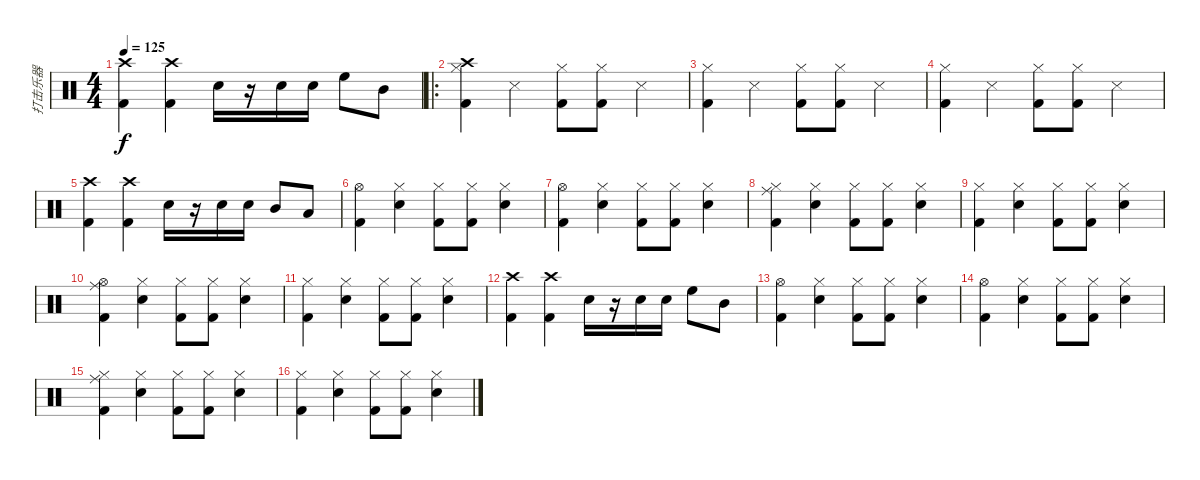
\track ("打击乐器" "打击乐器") {instrument percussion}
\staff {score}
\articulation defaults
\ts (4 4)
\tempo 125
\clef neutral
\ks c
("Kick (hit) 2" "Crash high (hit)").4{dy f} ("Crash high (hit)" "Kick (hit) 2").4 "Snare (hit) 2".16 r.16 "Snare (hit) 2".16 "Snare (hit) 2".16 "High Floor Tom (hit)".8 "Mid Tom (hit)".8 |
\ro
("Hi-Hat (closed)" "Crash high (hit)" "Kick (hit) 2").4 "Snare (side stick) 3".4 ("Hi-Hat (closed)" "Kick (hit) 2").8 ("Hi-Hat (closed)" "Kick (hit) 2").8 "Snare (side stick) 3".4 |
("Hi-Hat (closed)" "Kick (hit) 2").4 "Snare (side stick) 3".4 ("Hi-Hat (closed)" "Kick (hit) 2").8 ("Hi-Hat (closed)" "Kick (hit) 2").8 "Snare (side stick) 3".4 |
("Hi-Hat (closed)" "Kick (hit) 2").4 "Snare (side stick) 3".4 ("Hi-Hat (closed)" "Kick (hit) 2").8 ("Hi-Hat (closed)" "Kick (hit) 2").8 "Snare (side stick) 3".4 |
("Kick (hit) 2" "Crash high (hit)").4 ("Crash high (hit)" "Kick (hit) 2").4 "Snare (hit) 2".16 r.16 "Snare (hit) 2".16 "Snare (hit) 2".16 "Mid Tom (hit)".8 "Low Tom (hit)".8 |
("Hi-Hat (open)" "Kick (hit) 2").4 ("Hi-Hat (closed)" "Snare (hit) 2").4 ("Hi-Hat (closed)" "Kick (hit) 2").8 ("Hi-Hat (closed)" "Kick (hit) 2").8 ("Hi-Hat (closed)" "Snare (hit) 2").4 |
("Hi-Hat (open)" "Kick (hit) 2").4 ("Hi-Hat (closed)" "Snare (hit) 2").4 ("Hi-Hat (closed)" "Kick (hit) 2").8 ("Hi-Hat (closed)" "Kick (hit) 2").8 ("Hi-Hat (closed)" "Snare (hit) 2").4 |
("Ride (middle)" "Hi-Hat (closed)" "Kick (hit) 2").4 ("Hi-Hat (closed)" "Snare (hit) 2").4 ("Hi-Hat (closed)" "Kick (hit) 2").8 ("Hi-Hat (closed)" "Kick (hit) 2").8 ("Hi-Hat (closed)" "Snare (hit) 2").4 |
("Hi-Hat (closed)" "Kick (hit) 2").4 ("Hi-Hat (closed)" "Snare (hit) 2").4 ("Hi-Hat (closed)" "Kick (hit) 2").8 ("Hi-Hat (closed)" "Kick (hit) 2").8 ("Hi-Hat (closed)" "Snare (hit) 2").4 |
("Ride (middle)" "Hi-Hat (open)" "Kick (hit) 2").4 ("Hi-Hat (closed)" "Snare (hit) 2").4 ("Hi-Hat (closed)" "Kick (hit) 2").8 ("Hi-Hat (closed)" "Kick (hit) 2").8 ("Hi-Hat (closed)" "Snare (hit) 2").4 |
("Hi-Hat (closed)" "Kick (hit) 2").4 ("Hi-Hat (closed)" "Snare (hit) 2").4 ("Hi-Hat (closed)" "Kick (hit) 2").8 ("Hi-Hat (closed)" "Kick (hit) 2").8 ("Hi-Hat (closed)" "Snare (hit) 2").4 |
("Kick (hit) 2" "Crash high (hit)").4 ("Crash high (hit)" "Kick (hit) 2").4 "Snare (hit) 2".16 r.16 "Snare (hit) 2".16 "Snare (hit) 2".16 "High Floor Tom (hit)".8 "Mid Tom (hit)".8 |
("Hi-Hat (open)" "Kick (hit) 2").4 ("Hi-Hat (closed)" "Snare (hit) 2").4 ("Hi-Hat (closed)" "Kick (hit) 2").8 ("Hi-Hat (closed)" "Kick (hit) 2").8 ("Hi-Hat (closed)" "Snare (hit) 2").4 |
("Hi-Hat (open)" "Kick (hit) 2").4 ("Hi-Hat (closed)" "Snare (hit) 2").4 ("Hi-Hat (closed)" "Kick (hit) 2").8 ("Hi-Hat (closed)" "Kick (hit) 2").8 ("Hi-Hat (closed)" "Snare (hit) 2").4 |
("Ride (middle)" "Hi-Hat (closed)" "Kick (hit) 2").4 ("Hi-Hat (closed)" "Snare (hit) 2").4 ("Hi-Hat (closed)" "Kick (hit) 2").8 ("Hi-Hat (closed)" "Kick (hit) 2").8 ("Hi-Hat (closed)" "Snare (hit) 2").4 |
("Hi-Hat (closed)" "Kick (hit) 2").4 ("Hi-Hat (closed)" "Snare (hit) 2").4 ("Hi-Hat (closed)" "Kick (hit) 2").8 ("Hi-Hat (closed)" "Kick (hit) 2").8 ("Hi-Hat (closed)" "Snare (hit) 2").4
